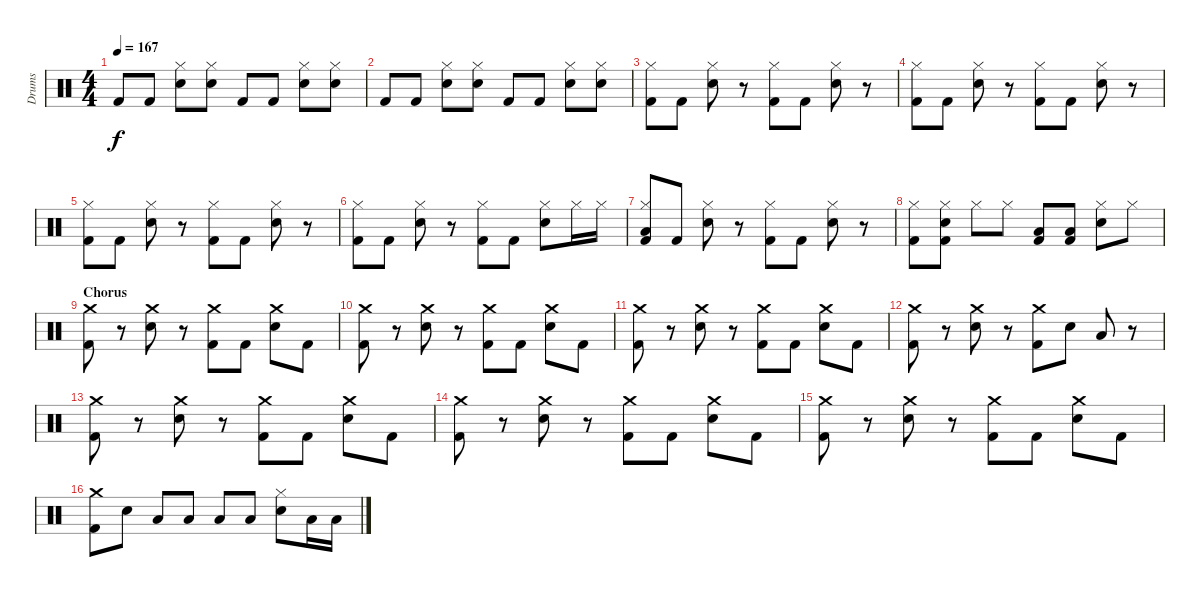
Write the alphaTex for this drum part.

\track ("Drums" "Drums") {instrument percussion}
\staff {score}
\articulation defaults
\ts (4 4)
\tempo 167
\clef neutral
\ks c "Kick (hit) 2".8{dy f} "Kick (hit) 2".8
("Hi-Hat (closed)" "Electric Snare (hit)").8 ("Hi-Hat (closed)" "Electric Snare (hit)").8 "Kick (hit) 2".8 "Kick (hit) 2".8 ("Hi-Hat (closed)" "Electric Snare (hit)").8 ("Hi-Hat (closed)" "Electric Snare (hit)").8 |
"Kick (hit) 2".8 "Kick (hit) 2".8 ("Hi-Hat (closed)" "Electric Snare (hit)").8 ("Hi-Hat (closed)" "Electric Snare (hit)").8 "Kick (hit) 2".8 "Kick (hit) 2".8 ("Hi-Hat (closed)" "Electric Snare (hit)").8 ("Hi-Hat (closed)" "Electric Snare (hit)").8 |
("Hi-Hat (closed)" "Kick (hit) 2").8 "Kick (hit) 2".8 ("Hi-Hat (closed)" "Electric Snare (hit)").8 r.8 ("Hi-Hat (closed)" "Kick (hit) 2").8 "Kick (hit) 2".8 ("Hi-Hat (closed)" "Electric Snare (hit)").8 r.8 |
("Hi-Hat (closed)" "Kick (hit) 2").8 "Kick (hit) 2".8 ("Hi-Hat (closed)" "Electric Snare (hit)").8 r.8 ("Hi-Hat (closed)" "Kick (hit) 2").8 "Kick (hit) 2".8 ("Hi-Hat (closed)" "Electric Snare (hit)").8 r.8 |
("Hi-Hat (closed)" "Kick (hit) 2").8 "Kick (hit) 2".8 ("Hi-Hat (closed)" "Electric Snare (hit)").8 r.8 ("Hi-Hat (closed)" "Kick (hit) 2").8 "Kick (hit) 2".8 ("Hi-Hat (closed)" "Electric Snare (hit)").8 r.8 |
("Hi-Hat (closed)" "Kick (hit) 2").8 "Kick (hit) 2".8 ("Hi-Hat (closed)" "Electric Snare (hit)").8 r.8 ("Hi-Hat (closed)" "Kick (hit) 2").8 "Kick (hit) 2".8 ("Hi-Hat (closed)" "Electric Snare (hit)").8 "Hi-Hat (closed)".16 "Hi-Hat (closed)".16 |
("Low Tom (hit)" "Hi-Hat (closed)" "Kick (hit) 2").8 "Kick (hit) 2".8 ("Hi-Hat (closed)" "Electric Snare (hit)").8 r.8 ("Hi-Hat (closed)" "Kick (hit) 2").8 "Kick (hit) 2".8 ("Hi-Hat (closed)" "Electric Snare (hit)").8 r.8 |
("Hi-Hat (closed)" "Kick (hit) 2").8 ("Hi-Hat (closed)" "Electric Snare (hit)" "Kick (hit) 2").8 "Hi-Hat (closed)".8 "Hi-Hat (closed)".8 ("Low Tom (hit)" "Kick (hit) 2").8 ("Low Tom (hit)" "Kick (hit) 2").8 ("Hi-Hat (closed)" "Electric Snare (hit)").8 "Hi-Hat (closed)".8 |
\section ("" "Chorus")
("Crash medium (hit)" "Kick (hit) 2").8 r.8 ("Crash medium (hit)" "Electric Snare (hit)").8 r.8 ("Crash medium (hit)" "Kick (hit) 2").8 "Kick (hit) 2".8 ("Crash medium (hit)" "Electric Snare (hit)").8 "Kick (hit) 2".8 |
("Crash medium (hit)" "Kick (hit) 2").8 r.8 ("Crash medium (hit)" "Electric Snare (hit)").8 r.8 ("Crash medium (hit)" "Kick (hit) 2").8 "Kick (hit) 2".8 ("Crash medium (hit)" "Electric Snare (hit)").8 "Kick (hit) 2".8 |
("Crash medium (hit)" "Kick (hit) 2").8 r.8 ("Crash medium (hit)" "Electric Snare (hit)").8 r.8 ("Crash medium (hit)" "Kick (hit) 2").8 "Kick (hit) 2".8 ("Crash medium (hit)" "Electric Snare (hit)").8 "Kick (hit) 2".8 |
("Crash medium (hit)" "Kick (hit) 2").8 r.8 ("Crash medium (hit)" "Electric Snare (hit)").8 r.8 ("Crash medium (hit)" "Kick (hit) 2").8 "Electric Snare (hit)".8 "Low Tom (hit)".8 r.8 |
("Crash medium (hit)" "Kick (hit) 2").8 r.8 ("Crash medium (hit)" "Electric Snare (hit)").8 r.8 ("Crash medium (hit)" "Kick (hit) 2").8 "Kick (hit) 2".8 ("Crash medium (hit)" "Electric Snare (hit)").8 "Kick (hit) 2".8 |
("Crash medium (hit)" "Kick (hit) 2").8 r.8 ("Crash medium (hit)" "Electric Snare (hit)").8 r.8 ("Crash medium (hit)" "Kick (hit) 2").8 "Kick (hit) 2".8 ("Crash medium (hit)" "Electric Snare (hit)").8 "Kick (hit) 2".8 |
("Crash medium (hit)" "Kick (hit) 2").8 r.8 ("Crash medium (hit)" "Electric Snare (hit)").8 r.8 ("Crash medium (hit)" "Kick (hit) 2").8 "Kick (hit) 2".8 ("Crash medium (hit)" "Electric Snare (hit)").8 "Kick (hit) 2".8 |
("Crash medium (hit)" "Kick (hit) 2").8 "Electric Snare (hit)".8 "Low Tom (hit)".8 "Low Tom (hit)".8 "Low Tom (hit)".8 "Low Tom (hit)".8 ("Hi-Hat (closed)" "Electric Snare (hit)").8 "Low Tom (hit)".16 "Low Tom (hit)".16
